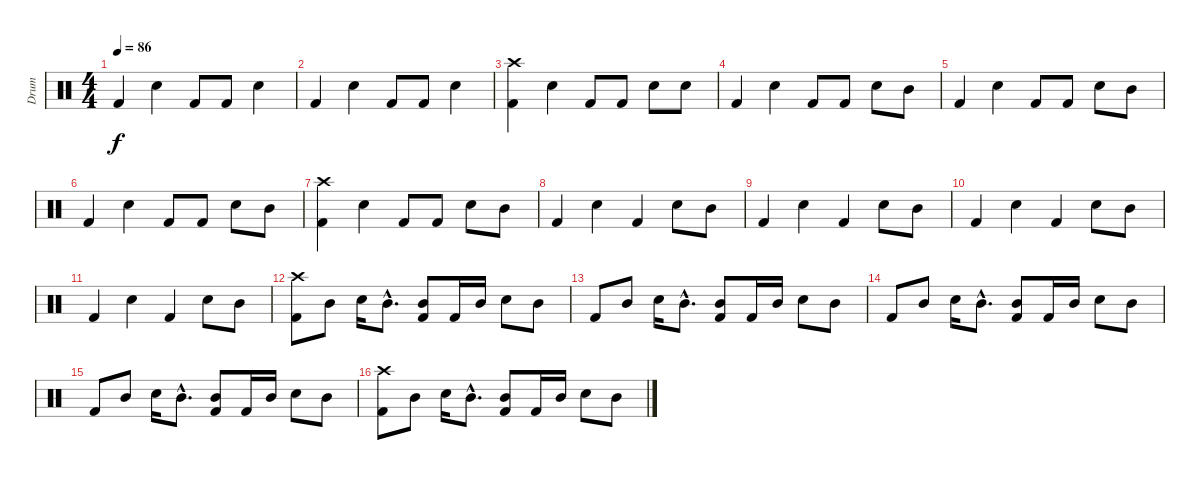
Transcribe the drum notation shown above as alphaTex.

\track ("Drum" "Drum") {instrument percussion}
\staff {score}
\articulation defaults
\ts (4 4)
\tempo 86
\clef neutral
\ks c "Kick (hit) 2".4{dy f} "Electric Snare (hit)".4 "Kick (hit) 2".8 "Kick (hit) 2".8 "Electric Snare (hit)".4
|
"Kick (hit) 2".4 "Electric Snare (hit)".4 "Kick (hit) 2".8 "Kick (hit) 2".8 "Electric Snare (hit)".4 |
("Crash high (hit)" "Kick (hit) 2").4 "Electric Snare (hit)".4 "Kick (hit) 2".8 "Kick (hit) 2".8 "Electric Snare (hit)".8 "Electric Snare (hit)".8 |
"Kick (hit) 2".4 "Electric Snare (hit)".4 "Kick (hit) 2".8 "Kick (hit) 2".8 "Electric Snare (hit)".8 "Mid Tom (hit)".8 |
"Kick (hit) 2".4 "Electric Snare (hit)".4 "Kick (hit) 2".8 "Kick (hit) 2".8 "Electric Snare (hit)".8 "Mid Tom (hit)".8 |
"Kick (hit) 2".4 "Electric Snare (hit)".4 "Kick (hit) 2".8 "Kick (hit) 2".8 "Electric Snare (hit)".8 "Mid Tom (hit)".8 |
("Crash high (hit)" "Kick (hit) 2").4 "Electric Snare (hit)".4 "Kick (hit) 2".8 "Kick (hit) 2".8 "Electric Snare (hit)".8 "Mid Tom (hit)".8 |
"Kick (hit) 2".4 "Electric Snare (hit)".4 "Kick (hit) 2".4 "Electric Snare (hit)".8 "Mid Tom (hit)".8 |
"Kick (hit) 2".4 "Electric Snare (hit)".4 "Kick (hit) 2".4 "Electric Snare (hit)".8 "Mid Tom (hit)".8 |
"Kick (hit) 2".4 "Electric Snare (hit)".4 "Kick (hit) 2".4 "Electric Snare (hit)".8 "Mid Tom (hit)".8 |
"Kick (hit) 2".4 "Electric Snare (hit)".4 "Kick (hit) 2".4 "Electric Snare (hit)".8 "Mid Tom (hit)".8 |
("Crash high (hit)" "Kick (hit) 2").8 "Mid Tom (hit)".8 "Electric Snare (hit)".16 "Mid Tom (hit)"{hac}.8{d} ("Mid Tom (hit)" "Kick (hit) 2").8 "Kick (hit) 2".16 "Mid Tom (hit)".16 "Electric Snare (hit)".8 "Mid Tom (hit)".8 |
"Kick (hit) 2".8 "Mid Tom (hit)".8 "Electric Snare (hit)".16 "Mid Tom (hit)"{hac}.8{d} ("Mid Tom (hit)" "Kick (hit) 2").8 "Kick (hit) 2".16 "Mid Tom (hit)".16 "Electric Snare (hit)".8 "Mid Tom (hit)".8 |
"Kick (hit) 2".8 "Mid Tom (hit)".8 "Electric Snare (hit)".16 "Mid Tom (hit)"{hac}.8{d} ("Mid Tom (hit)" "Kick (hit) 2").8 "Kick (hit) 2".16 "Mid Tom (hit)".16 "Electric Snare (hit)".8 "Mid Tom (hit)".8 |
"Kick (hit) 2".8 "Mid Tom (hit)".8 "Electric Snare (hit)".16 "Mid Tom (hit)"{hac}.8{d} ("Mid Tom (hit)" "Kick (hit) 2").8 "Kick (hit) 2".16 "Mid Tom (hit)".16 "Electric Snare (hit)".8 "Mid Tom (hit)".8 |
("Crash high (hit)" "Kick (hit) 2").8 "Mid Tom (hit)".8 "Electric Snare (hit)".16 "Mid Tom (hit)"{hac}.8{d} ("Mid Tom (hit)" "Kick (hit) 2").8 "Kick (hit) 2".16 "Mid Tom (hit)".16 "Electric Snare (hit)".8 "Mid Tom (hit)".8
